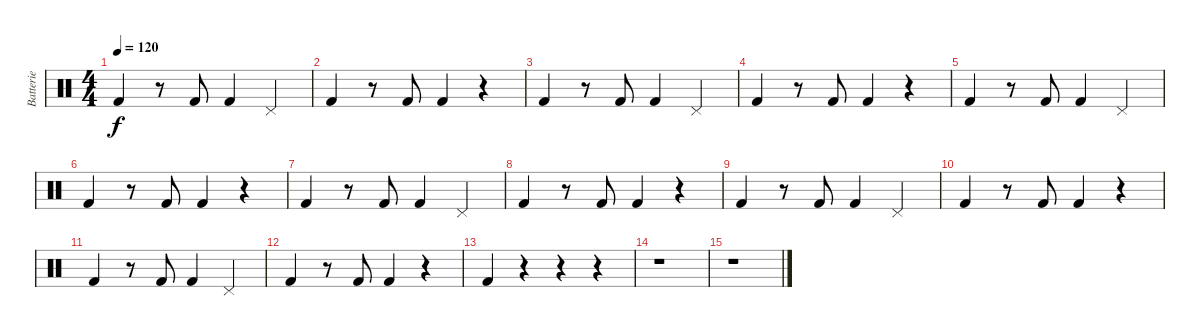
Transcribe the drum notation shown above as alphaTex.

\track ("Batterie" "Batterie") {instrument percussion}
\staff {score}
\articulation defaults
\ts (4 4)
\tempo 120
\clef neutral
\ks c "Kick (hit) 2".4{dy f}
r.8 "Kick (hit) 2".8 "Kick (hit) 2".4 "Pedal Hi-Hat (hit)".4 |
"Kick (hit) 2".4 r.8 "Kick (hit) 2".8 "Kick (hit) 2".4 r.4 |
"Kick (hit) 2".4 r.8 "Kick (hit) 2".8 "Kick (hit) 2".4 "Pedal Hi-Hat (hit)".4 |
"Kick (hit) 2".4 r.8 "Kick (hit) 2".8 "Kick (hit) 2".4 r.4 |
"Kick (hit) 2".4 r.8 "Kick (hit) 2".8 "Kick (hit) 2".4 "Pedal Hi-Hat (hit)".4 |
"Kick (hit) 2".4 r.8 "Kick (hit) 2".8 "Kick (hit) 2".4 r.4 |
"Kick (hit) 2".4 r.8 "Kick (hit) 2".8 "Kick (hit) 2".4 "Pedal Hi-Hat (hit)".4 |
"Kick (hit) 2".4 r.8 "Kick (hit) 2".8 "Kick (hit) 2".4 r.4 |
"Kick (hit) 2".4 r.8 "Kick (hit) 2".8 "Kick (hit) 2".4 "Pedal Hi-Hat (hit)".4 |
"Kick (hit) 2".4 r.8 "Kick (hit) 2".8 "Kick (hit) 2".4 r.4 |
"Kick (hit) 2".4 r.8 "Kick (hit) 2".8 "Kick (hit) 2".4 "Pedal Hi-Hat (hit)".4 |
"Kick (hit) 2".4 r.8 "Kick (hit) 2".8 "Kick (hit) 2".4 r.4 |
"Kick (hit) 2".4 r.4 r.4 r.4 |
r.1 |
r.1
